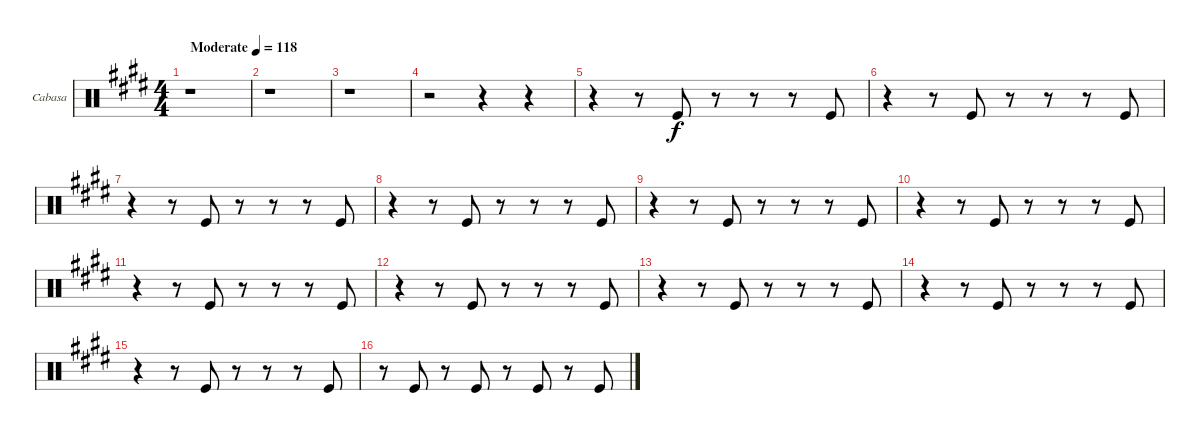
\bracketExtendMode groupsimilarinstruments
\firstSystemTrackNameOrientation horizontal
\otherSystemsTrackNameOrientation horizontal
\track ("Cabasa" "Cabasa") {instrument percussion}
\staff {score}
\articulation defaults
\ts (4 4)
\beaming (8 2 2 2 2)
\tempo (118 "Moderate")
\clef neutral
\ks e
r.1{dy f} |
r.1 |
r.1 |
r.2 r.4 r.4 |
r.4 r.8 "Kick (hit)".8 r.8 r.8 r.8 "Kick (hit)".8 |
r.4 r.8 "Kick (hit)".8 r.8 r.8 r.8 "Kick (hit)".8 |
r.4 r.8 "Kick (hit)".8 r.8 r.8 r.8 "Kick (hit)".8 |
r.4 r.8 "Kick (hit)".8 r.8 r.8 r.8 "Kick (hit)".8 |
r.4 r.8 "Kick (hit)".8 r.8 r.8 r.8 "Kick (hit)".8 |
r.4 r.8 "Kick (hit)".8 r.8 r.8 r.8 "Kick (hit)".8 |
r.4 r.8 "Kick (hit)".8 r.8 r.8 r.8 "Kick (hit)".8 |
r.4 r.8 "Kick (hit)".8 r.8 r.8 r.8 "Kick (hit)".8 |
r.4 r.8 "Kick (hit)".8 r.8 r.8 r.8 "Kick (hit)".8 |
r.4 r.8 "Kick (hit)".8 r.8 r.8 r.8 "Kick (hit)".8 |
r.4 r.8 "Kick (hit)".8 r.8 r.8 r.8 "Kick (hit)".8 |
r.8 "Kick (hit)".8 r.8 "Kick (hit)".8 r.8 "Kick (hit)".8 r.8 "Kick (hit)".8
